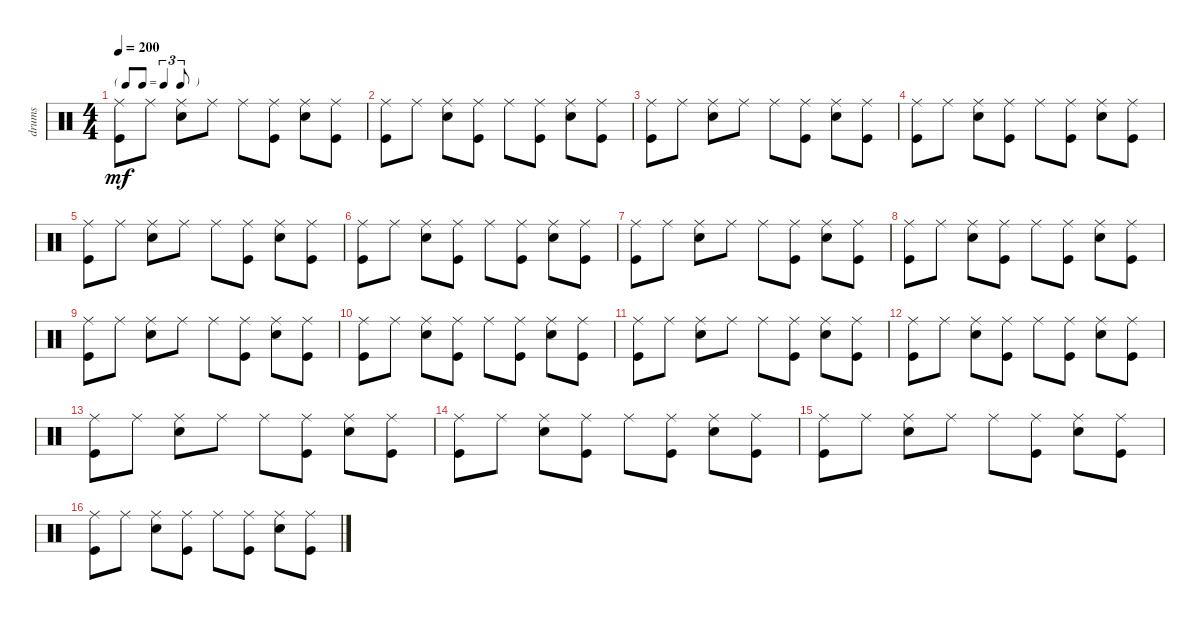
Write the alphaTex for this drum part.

\track ("drums" "drums") {instrument percussion}
\staff {score}
\articulation defaults
\ts (4 4)
\tf triplet8th
\tempo 200
\clef neutral
\ks c
("Ride (middle)" "Kick (hit)").8{dy mf} "Ride (middle)".8 ("Ride (middle)" "Snare (hit) 2").8 "Ride (middle)".8 "Ride (middle)".8 ("Ride (middle)" "Kick (hit)").8 ("Ride (middle)" "Snare (hit) 2").8 ("Ride (middle)" "Kick (hit)").8 |
("Ride (middle)" "Kick (hit)").8 "Ride (middle)".8 ("Ride (middle)" "Snare (hit) 2").8 ("Ride (middle)" "Kick (hit)").8 "Ride (middle)".8 ("Ride (middle)" "Kick (hit)").8 ("Ride (middle)" "Snare (hit) 2").8 ("Ride (middle)" "Kick (hit)").8 |
("Ride (middle)" "Kick (hit)").8 "Ride (middle)".8 ("Ride (middle)" "Snare (hit) 2").8 "Ride (middle)".8 "Ride (middle)".8 ("Ride (middle)" "Kick (hit)").8 ("Ride (middle)" "Snare (hit) 2").8 ("Ride (middle)" "Kick (hit)").8 |
("Ride (middle)" "Kick (hit)").8 "Ride (middle)".8 ("Ride (middle)" "Snare (hit) 2").8 ("Ride (middle)" "Kick (hit)").8 "Ride (middle)".8 ("Ride (middle)" "Kick (hit)").8 ("Ride (middle)" "Snare (hit) 2").8 ("Ride (middle)" "Kick (hit)").8 |
("Ride (middle)" "Kick (hit)").8 "Ride (middle)".8 ("Ride (middle)" "Snare (hit) 2").8 "Ride (middle)".8 "Ride (middle)".8 ("Ride (middle)" "Kick (hit)").8 ("Ride (middle)" "Snare (hit) 2").8 ("Ride (middle)" "Kick (hit)").8 |
("Ride (middle)" "Kick (hit)").8 "Ride (middle)".8 ("Ride (middle)" "Snare (hit) 2").8 ("Ride (middle)" "Kick (hit)").8 "Ride (middle)".8 ("Ride (middle)" "Kick (hit)").8 ("Ride (middle)" "Snare (hit) 2").8 ("Ride (middle)" "Kick (hit)").8 |
("Ride (middle)" "Kick (hit)").8 "Ride (middle)".8 ("Ride (middle)" "Snare (hit) 2").8 "Ride (middle)".8 "Ride (middle)".8 ("Ride (middle)" "Kick (hit)").8 ("Ride (middle)" "Snare (hit) 2").8 ("Ride (middle)" "Kick (hit)").8 |
("Ride (middle)" "Kick (hit)").8 "Ride (middle)".8 ("Ride (middle)" "Snare (hit) 2").8 ("Ride (middle)" "Kick (hit)").8 "Ride (middle)".8 ("Ride (middle)" "Kick (hit)").8 ("Ride (middle)" "Snare (hit) 2").8 ("Ride (middle)" "Kick (hit)").8 |
("Ride (middle)" "Kick (hit)").8 "Ride (middle)".8 ("Ride (middle)" "Snare (hit) 2").8 "Ride (middle)".8 "Ride (middle)".8 ("Ride (middle)" "Kick (hit)").8 ("Ride (middle)" "Snare (hit) 2").8 ("Ride (middle)" "Kick (hit)").8 |
("Ride (middle)" "Kick (hit)").8 "Ride (middle)".8 ("Ride (middle)" "Snare (hit) 2").8 ("Ride (middle)" "Kick (hit)").8 "Ride (middle)".8 ("Ride (middle)" "Kick (hit)").8 ("Ride (middle)" "Snare (hit) 2").8 ("Ride (middle)" "Kick (hit)").8 |
("Ride (middle)" "Kick (hit)").8 "Ride (middle)".8 ("Ride (middle)" "Snare (hit) 2").8 "Ride (middle)".8 "Ride (middle)".8 ("Ride (middle)" "Kick (hit)").8 ("Ride (middle)" "Snare (hit) 2").8 ("Ride (middle)" "Kick (hit)").8 |
("Ride (middle)" "Kick (hit)").8 "Ride (middle)".8 ("Ride (middle)" "Snare (hit) 2").8 ("Ride (middle)" "Kick (hit)").8 "Ride (middle)".8 ("Ride (middle)" "Kick (hit)").8 ("Ride (middle)" "Snare (hit) 2").8 ("Ride (middle)" "Kick (hit)").8 |
("Ride (middle)" "Kick (hit)").8 "Ride (middle)".8 ("Ride (middle)" "Snare (hit) 2").8 "Ride (middle)".8 "Ride (middle)".8 ("Ride (middle)" "Kick (hit)").8 ("Ride (middle)" "Snare (hit) 2").8 ("Ride (middle)" "Kick (hit)").8 |
("Ride (middle)" "Kick (hit)").8 "Ride (middle)".8 ("Ride (middle)" "Snare (hit) 2").8 ("Ride (middle)" "Kick (hit)").8 "Ride (middle)".8 ("Ride (middle)" "Kick (hit)").8 ("Ride (middle)" "Snare (hit) 2").8 ("Ride (middle)" "Kick (hit)").8 |
("Ride (middle)" "Kick (hit)").8 "Ride (middle)".8 ("Ride (middle)" "Snare (hit) 2").8 "Ride (middle)".8 "Ride (middle)".8 ("Ride (middle)" "Kick (hit)").8 ("Ride (middle)" "Snare (hit) 2").8 ("Ride (middle)" "Kick (hit)").8 |
("Ride (middle)" "Kick (hit)").8 "Ride (middle)".8 ("Ride (middle)" "Snare (hit) 2").8 ("Ride (middle)" "Kick (hit)").8 "Ride (middle)".8 ("Ride (middle)" "Kick (hit)").8 ("Ride (middle)" "Snare (hit) 2").8 ("Ride (middle)" "Kick (hit)").8
